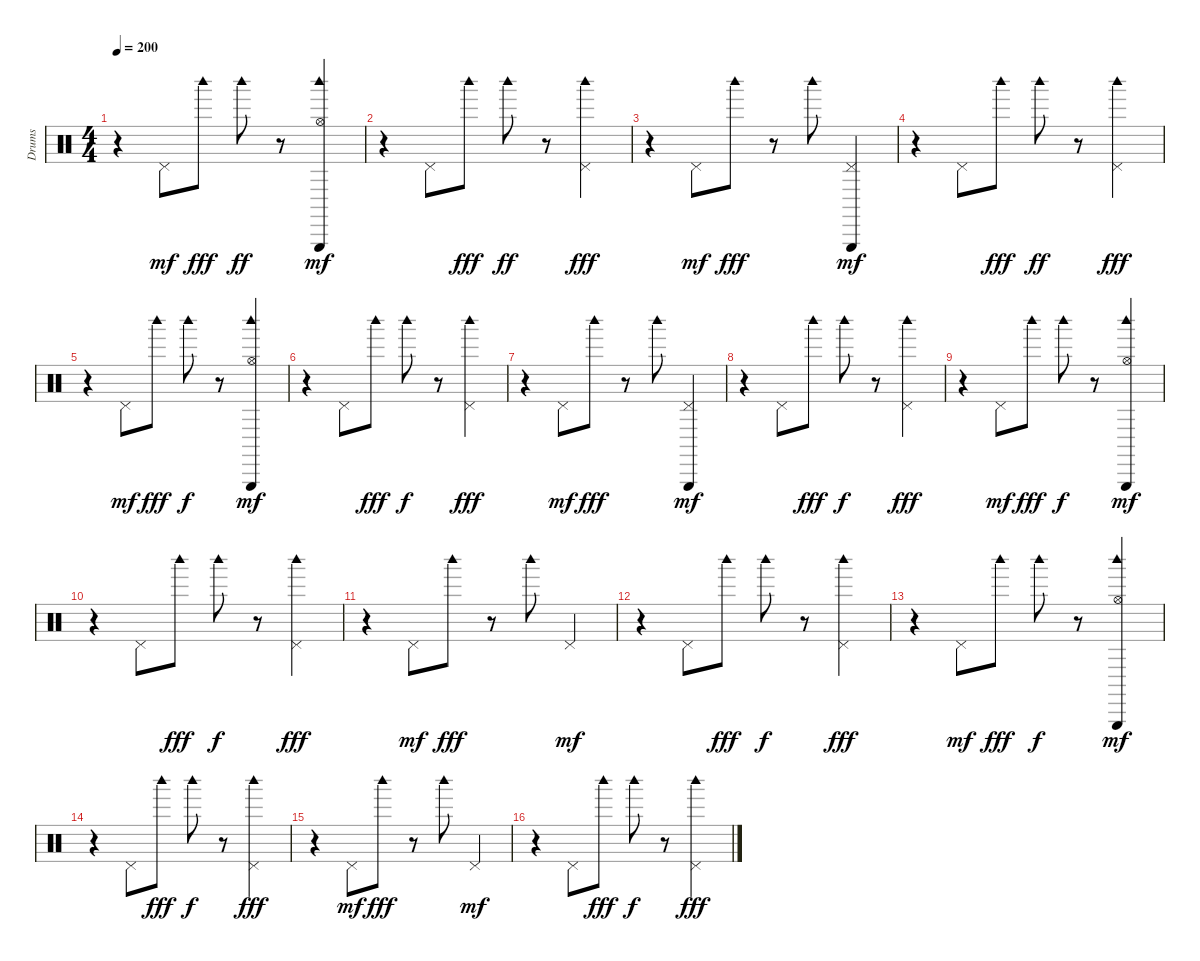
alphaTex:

\track ("Drums" "Drums") {instrument percussion}
\staff {score}
\articulation defaults
\ts (4 4)
\tempo 200
\clef neutral
\ks c
r.4{dy fff} "Pedal Hi-Hat (hit)".8{dy mf} "Woodblock high (hit)".8{dy fff} "Woodblock high (hit)".8{dy ff} r.8 ("Woodblock high (hit)" "Hi-Hat (open)" "Triangle (hit)").4{dy mf} |
r.4 "Pedal Hi-Hat (hit)".8 "Woodblock high (hit)".8{dy fff} "Woodblock high (hit)".8{dy ff} r.8 ("Pedal Hi-Hat (hit)" "Woodblock high (hit)").4{dy fff} |
r.4 "Pedal Hi-Hat (hit)".8{dy mf} "Woodblock high (hit)".8{dy fff} r.8 "Woodblock high (hit)".8 ("Pedal Hi-Hat (hit)" "Triangle (hit)").4{dy mf} |
r.4 "Pedal Hi-Hat (hit)".8 "Woodblock high (hit)".8{dy fff} "Woodblock high (hit)".8{dy ff} r.8 ("Pedal Hi-Hat (hit)" "Woodblock high (hit)").4{dy fff} |
r.4 "Pedal Hi-Hat (hit)".8{dy mf} "Woodblock high (hit)".8{dy fff} "Woodblock high (hit)".8{dy f} r.8 ("Triangle (hit)" "Woodblock high (hit)" "Hi-Hat (open)").4{dy mf} |
r.4 "Pedal Hi-Hat (hit)".8 "Woodblock high (hit)".8{dy fff} "Woodblock high (hit)".8{dy f} r.8 ("Pedal Hi-Hat (hit)" "Woodblock high (hit)").4{dy fff} |
r.4 "Pedal Hi-Hat (hit)".8{dy mf} "Woodblock high (hit)".8{dy fff} r.8 "Woodblock high (hit)".8 ("Pedal Hi-Hat (hit)" "Triangle (hit)").4{dy mf} |
r.4 "Pedal Hi-Hat (hit)".8 "Woodblock high (hit)".8{dy fff} "Woodblock high (hit)".8{dy f} r.8 ("Pedal Hi-Hat (hit)" "Woodblock high (hit)").4{dy fff} |
r.4 "Pedal Hi-Hat (hit)".8{dy mf} "Woodblock high (hit)".8{dy fff} "Woodblock high (hit)".8{dy f} r.8 ("Triangle (hit)" "Woodblock high (hit)" "Hi-Hat (open)").4{dy mf} |
r.4 "Pedal Hi-Hat (hit)".8 "Woodblock high (hit)".8{dy fff} "Woodblock high (hit)".8{dy f} r.8 ("Pedal Hi-Hat (hit)" "Woodblock high (hit)").4{dy fff} |
r.4 "Pedal Hi-Hat (hit)".8{dy mf} "Woodblock high (hit)".8{dy fff} r.8 "Woodblock high (hit)".8 "Pedal Hi-Hat (hit)".4{dy mf} |
r.4 "Pedal Hi-Hat (hit)".8 "Woodblock high (hit)".8{dy fff} "Woodblock high (hit)".8{dy f} r.8 ("Pedal Hi-Hat (hit)" "Woodblock high (hit)").4{dy fff} |
r.4 "Pedal Hi-Hat (hit)".8{dy mf} "Woodblock high (hit)".8{dy fff} "Woodblock high (hit)".8{dy f} r.8 ("Woodblock high (hit)" "Hi-Hat (open)" "Triangle (hit)").4{dy mf} |
r.4 "Pedal Hi-Hat (hit)".8 "Woodblock high (hit)".8{dy fff} "Woodblock high (hit)".8{dy f} r.8 ("Pedal Hi-Hat (hit)" "Woodblock high (hit)").4{dy fff} |
r.4 "Pedal Hi-Hat (hit)".8{dy mf} "Woodblock high (hit)".8{dy fff} r.8 "Woodblock high (hit)".8 "Pedal Hi-Hat (hit)".4{dy mf} |
r.4 "Pedal Hi-Hat (hit)".8 "Woodblock high (hit)".8{dy fff} "Woodblock high (hit)".8{dy f} r.8 ("Pedal Hi-Hat (hit)" "Woodblock high (hit)").4{dy fff}
